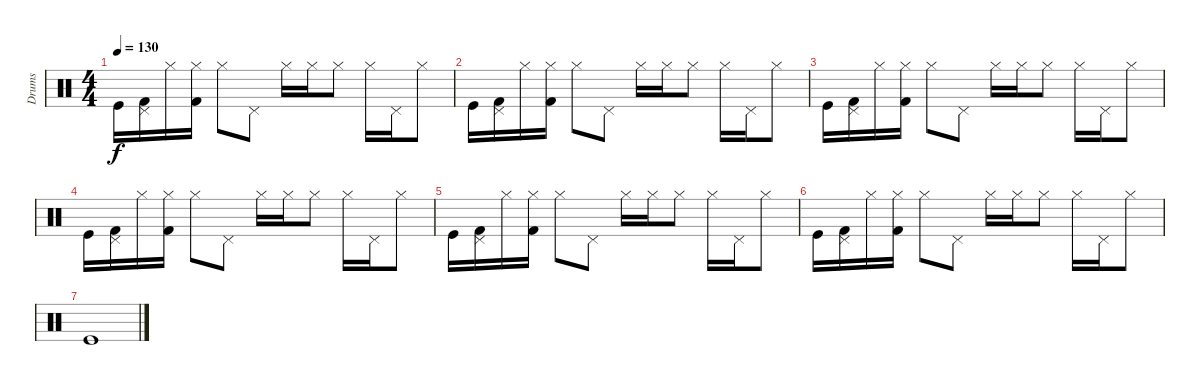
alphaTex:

\track ("Drums" "Drums") {instrument percussion}
\staff {score}
\articulation defaults
\ts (4 4)
\tempo 130
\clef neutral
\ks c "Kick (hit)".16{dy f}
("Pedal Hi-Hat (hit)" "Kick (hit) 2").16 "Hi-Hat (closed)".16 ("Hi-Hat (closed)" "Kick (hit) 2").16 "Hi-Hat (closed)".8 "Pedal Hi-Hat (hit)".8 "Hi-Hat (closed)".16 "Hi-Hat (closed)".16 "Hi-Hat (closed)".8 "Hi-Hat (closed)".16 "Pedal Hi-Hat (hit)".16 "Hi-Hat (closed)".8 |
"Kick (hit)".16 ("Pedal Hi-Hat (hit)" "Kick (hit) 2").16 "Hi-Hat (closed)".16 ("Hi-Hat (closed)" "Kick (hit) 2").16 "Hi-Hat (closed)".8 "Pedal Hi-Hat (hit)".8 "Hi-Hat (closed)".16 "Hi-Hat (closed)".16 "Hi-Hat (closed)".8 "Hi-Hat (closed)".16 "Pedal Hi-Hat (hit)".16 "Hi-Hat (closed)".8 |
"Kick (hit)".16 ("Pedal Hi-Hat (hit)" "Kick (hit) 2").16 "Hi-Hat (closed)".16 ("Hi-Hat (closed)" "Kick (hit) 2").16 "Hi-Hat (closed)".8 "Pedal Hi-Hat (hit)".8 "Hi-Hat (closed)".16 "Hi-Hat (closed)".16 "Hi-Hat (closed)".8 "Hi-Hat (closed)".16 "Pedal Hi-Hat (hit)".16 "Hi-Hat (closed)".8 |
"Kick (hit)".16 ("Pedal Hi-Hat (hit)" "Kick (hit) 2").16 "Hi-Hat (closed)".16 ("Hi-Hat (closed)" "Kick (hit) 2").16 "Hi-Hat (closed)".8 "Pedal Hi-Hat (hit)".8 "Hi-Hat (closed)".16 "Hi-Hat (closed)".16 "Hi-Hat (closed)".8 "Hi-Hat (closed)".16 "Pedal Hi-Hat (hit)".16 "Hi-Hat (closed)".8 |
"Kick (hit)".16 ("Pedal Hi-Hat (hit)" "Kick (hit) 2").16 "Hi-Hat (closed)".16 ("Hi-Hat (closed)" "Kick (hit) 2").16 "Hi-Hat (closed)".8 "Pedal Hi-Hat (hit)".8 "Hi-Hat (closed)".16 "Hi-Hat (closed)".16 "Hi-Hat (closed)".8 "Hi-Hat (closed)".16 "Pedal Hi-Hat (hit)".16 "Hi-Hat (closed)".8 |
"Kick (hit)".16 ("Pedal Hi-Hat (hit)" "Kick (hit) 2").16 "Hi-Hat (closed)".16 ("Hi-Hat (closed)" "Kick (hit) 2").16 "Hi-Hat (closed)".8 "Pedal Hi-Hat (hit)".8 "Hi-Hat (closed)".16 "Hi-Hat (closed)".16 "Hi-Hat (closed)".8 "Hi-Hat (closed)".16 "Pedal Hi-Hat (hit)".16 "Hi-Hat (closed)".8 |
"Kick (hit)".1
